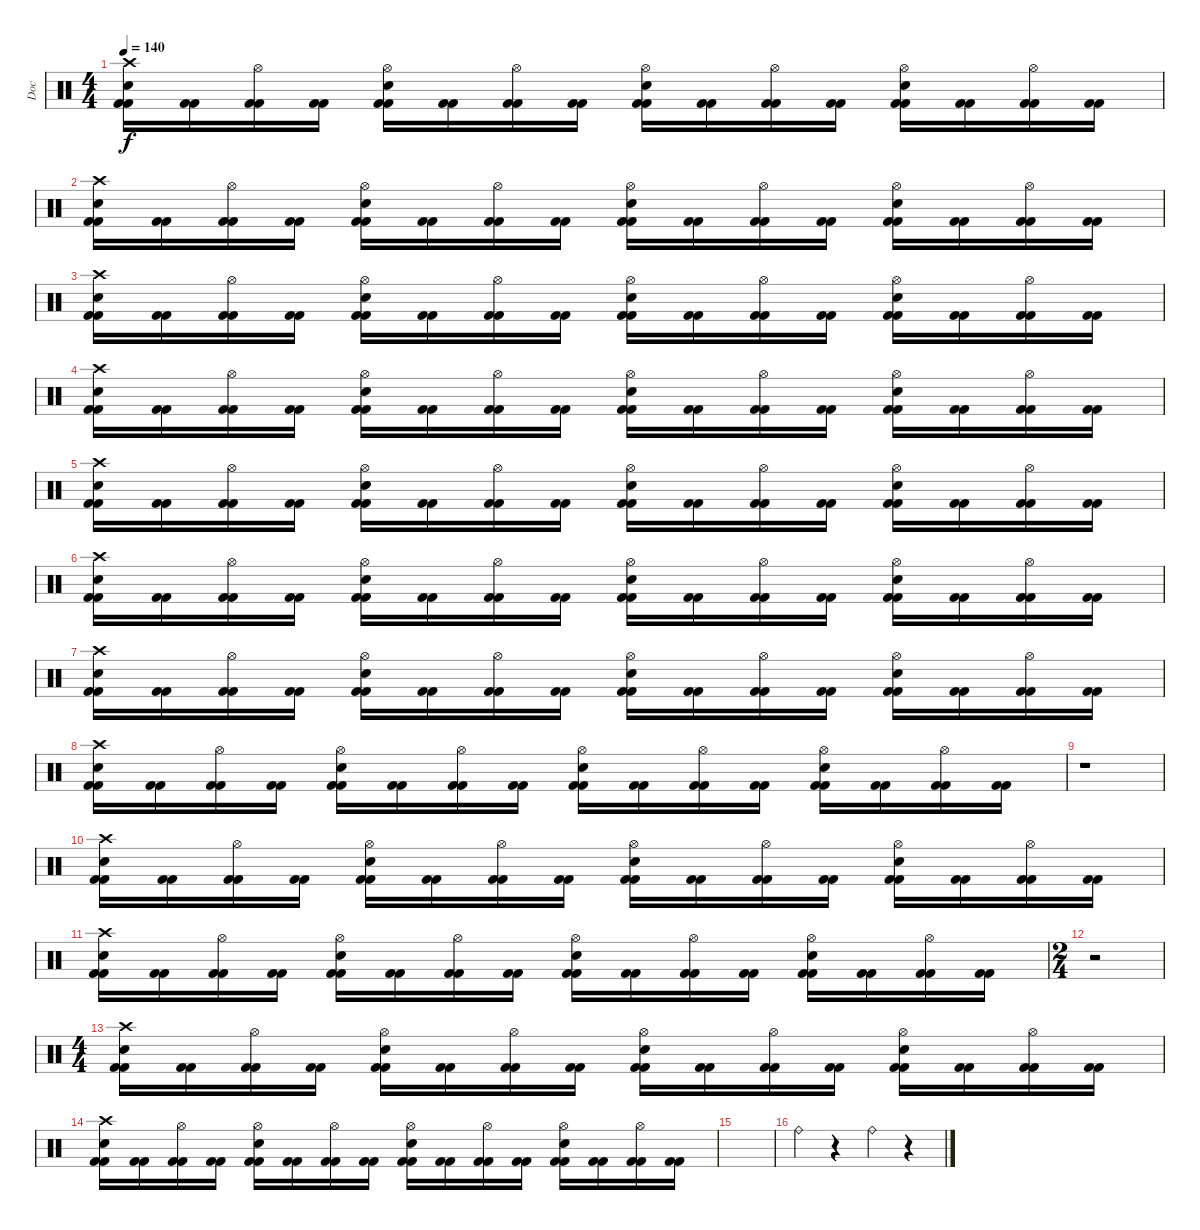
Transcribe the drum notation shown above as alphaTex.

\track ("Doc" "Doc") {instrument percussion}
\staff {score}
\articulation defaults
\ts (4 4)
\tempo 140
\clef neutral
\ks c
("Kick (hit) 2" "Crash high (hit)" "Electric Snare (hit)" "Kick (hit) 2").16{dy f} ("Kick (hit) 2" "Kick (hit) 2").16 ("Kick (hit) 2" "Hi-Hat (open)" "Kick (hit) 2").16 ("Kick (hit) 2" "Kick (hit) 2").16 ("Kick (hit) 2" "Hi-Hat (open)" "Electric Snare (hit)" "Kick (hit) 2").16 ("Kick (hit) 2" "Kick (hit) 2").16 ("Kick (hit) 2" "Hi-Hat (open)" "Kick (hit) 2").16 ("Kick (hit) 2" "Kick (hit) 2").16 ("Kick (hit) 2" "Hi-Hat (open)" "Electric Snare (hit)" "Kick (hit) 2").16 ("Kick (hit) 2" "Kick (hit) 2").16 ("Kick (hit) 2" "Hi-Hat (open)" "Kick (hit) 2").16 ("Kick (hit) 2" "Kick (hit) 2").16 ("Kick (hit) 2" "Hi-Hat (open)" "Electric Snare (hit)" "Kick (hit) 2").16 ("Kick (hit) 2" "Kick (hit) 2").16 ("Kick (hit) 2" "Hi-Hat (open)" "Kick (hit) 2").16 ("Kick (hit) 2" "Kick (hit) 2").16 |
("Kick (hit) 2" "Crash high (hit)" "Electric Snare (hit)" "Kick (hit) 2").16 ("Kick (hit) 2" "Kick (hit) 2").16 ("Kick (hit) 2" "Hi-Hat (open)" "Kick (hit) 2").16 ("Kick (hit) 2" "Kick (hit) 2").16 ("Kick (hit) 2" "Hi-Hat (open)" "Electric Snare (hit)" "Kick (hit) 2").16 ("Kick (hit) 2" "Kick (hit) 2").16 ("Kick (hit) 2" "Hi-Hat (open)" "Kick (hit) 2").16 ("Kick (hit) 2" "Kick (hit) 2").16 ("Kick (hit) 2" "Hi-Hat (open)" "Electric Snare (hit)" "Kick (hit) 2").16 ("Kick (hit) 2" "Kick (hit) 2").16 ("Kick (hit) 2" "Hi-Hat (open)" "Kick (hit) 2").16 ("Kick (hit) 2" "Kick (hit) 2").16 ("Kick (hit) 2" "Hi-Hat (open)" "Electric Snare (hit)" "Kick (hit) 2").16 ("Kick (hit) 2" "Kick (hit) 2").16 ("Kick (hit) 2" "Hi-Hat (open)" "Kick (hit) 2").16 ("Kick (hit) 2" "Kick (hit) 2").16 |
("Kick (hit) 2" "Crash high (hit)" "Electric Snare (hit)" "Kick (hit) 2").16 ("Kick (hit) 2" "Kick (hit) 2").16 ("Kick (hit) 2" "Hi-Hat (open)" "Kick (hit) 2").16 ("Kick (hit) 2" "Kick (hit) 2").16 ("Kick (hit) 2" "Hi-Hat (open)" "Electric Snare (hit)" "Kick (hit) 2").16 ("Kick (hit) 2" "Kick (hit) 2").16 ("Kick (hit) 2" "Hi-Hat (open)" "Kick (hit) 2").16 ("Kick (hit) 2" "Kick (hit) 2").16 ("Kick (hit) 2" "Hi-Hat (open)" "Electric Snare (hit)" "Kick (hit) 2").16 ("Kick (hit) 2" "Kick (hit) 2").16 ("Kick (hit) 2" "Hi-Hat (open)" "Kick (hit) 2").16 ("Kick (hit) 2" "Kick (hit) 2").16 ("Kick (hit) 2" "Hi-Hat (open)" "Electric Snare (hit)" "Kick (hit) 2").16 ("Kick (hit) 2" "Kick (hit) 2").16 ("Kick (hit) 2" "Hi-Hat (open)" "Kick (hit) 2").16 ("Kick (hit) 2" "Kick (hit) 2").16 |
("Kick (hit) 2" "Crash high (hit)" "Electric Snare (hit)" "Kick (hit) 2").16 ("Kick (hit) 2" "Kick (hit) 2").16 ("Kick (hit) 2" "Hi-Hat (open)" "Kick (hit) 2").16 ("Kick (hit) 2" "Kick (hit) 2").16 ("Kick (hit) 2" "Hi-Hat (open)" "Electric Snare (hit)" "Kick (hit) 2").16 ("Kick (hit) 2" "Kick (hit) 2").16 ("Kick (hit) 2" "Hi-Hat (open)" "Kick (hit) 2").16 ("Kick (hit) 2" "Kick (hit) 2").16 ("Kick (hit) 2" "Hi-Hat (open)" "Electric Snare (hit)" "Kick (hit) 2").16 ("Kick (hit) 2" "Kick (hit) 2").16 ("Kick (hit) 2" "Hi-Hat (open)" "Kick (hit) 2").16 ("Kick (hit) 2" "Kick (hit) 2").16 ("Kick (hit) 2" "Hi-Hat (open)" "Electric Snare (hit)" "Kick (hit) 2").16 ("Kick (hit) 2" "Kick (hit) 2").16 ("Kick (hit) 2" "Hi-Hat (open)" "Kick (hit) 2").16 ("Kick (hit) 2" "Kick (hit) 2").16 |
("Kick (hit) 2" "Crash high (hit)" "Electric Snare (hit)" "Kick (hit) 2").16 ("Kick (hit) 2" "Kick (hit) 2").16 ("Kick (hit) 2" "Hi-Hat (open)" "Kick (hit) 2").16 ("Kick (hit) 2" "Kick (hit) 2").16 ("Kick (hit) 2" "Hi-Hat (open)" "Electric Snare (hit)" "Kick (hit) 2").16 ("Kick (hit) 2" "Kick (hit) 2").16 ("Kick (hit) 2" "Hi-Hat (open)" "Kick (hit) 2").16 ("Kick (hit) 2" "Kick (hit) 2").16 ("Kick (hit) 2" "Hi-Hat (open)" "Electric Snare (hit)" "Kick (hit) 2").16 ("Kick (hit) 2" "Kick (hit) 2").16 ("Kick (hit) 2" "Hi-Hat (open)" "Kick (hit) 2").16 ("Kick (hit) 2" "Kick (hit) 2").16 ("Kick (hit) 2" "Hi-Hat (open)" "Electric Snare (hit)" "Kick (hit) 2").16 ("Kick (hit) 2" "Kick (hit) 2").16 ("Kick (hit) 2" "Hi-Hat (open)" "Kick (hit) 2").16 ("Kick (hit) 2" "Kick (hit) 2").16 |
("Kick (hit) 2" "Crash high (hit)" "Electric Snare (hit)" "Kick (hit) 2").16 ("Kick (hit) 2" "Kick (hit) 2").16 ("Kick (hit) 2" "Hi-Hat (open)" "Kick (hit) 2").16 ("Kick (hit) 2" "Kick (hit) 2").16 ("Kick (hit) 2" "Hi-Hat (open)" "Electric Snare (hit)" "Kick (hit) 2").16 ("Kick (hit) 2" "Kick (hit) 2").16 ("Kick (hit) 2" "Hi-Hat (open)" "Kick (hit) 2").16 ("Kick (hit) 2" "Kick (hit) 2").16 ("Kick (hit) 2" "Hi-Hat (open)" "Electric Snare (hit)" "Kick (hit) 2").16 ("Kick (hit) 2" "Kick (hit) 2").16 ("Kick (hit) 2" "Hi-Hat (open)" "Kick (hit) 2").16 ("Kick (hit) 2" "Kick (hit) 2").16 ("Kick (hit) 2" "Hi-Hat (open)" "Electric Snare (hit)" "Kick (hit) 2").16 ("Kick (hit) 2" "Kick (hit) 2").16 ("Kick (hit) 2" "Hi-Hat (open)" "Kick (hit) 2").16 ("Kick (hit) 2" "Kick (hit) 2").16 |
("Kick (hit) 2" "Crash high (hit)" "Electric Snare (hit)" "Kick (hit) 2").16 ("Kick (hit) 2" "Kick (hit) 2").16 ("Kick (hit) 2" "Hi-Hat (open)" "Kick (hit) 2").16 ("Kick (hit) 2" "Kick (hit) 2").16 ("Kick (hit) 2" "Hi-Hat (open)" "Electric Snare (hit)" "Kick (hit) 2").16 ("Kick (hit) 2" "Kick (hit) 2").16 ("Kick (hit) 2" "Hi-Hat (open)" "Kick (hit) 2").16 ("Kick (hit) 2" "Kick (hit) 2").16 ("Kick (hit) 2" "Hi-Hat (open)" "Electric Snare (hit)" "Kick (hit) 2").16 ("Kick (hit) 2" "Kick (hit) 2").16 ("Kick (hit) 2" "Hi-Hat (open)" "Kick (hit) 2").16 ("Kick (hit) 2" "Kick (hit) 2").16 ("Kick (hit) 2" "Hi-Hat (open)" "Electric Snare (hit)" "Kick (hit) 2").16 ("Kick (hit) 2" "Kick (hit) 2").16 ("Kick (hit) 2" "Hi-Hat (open)" "Kick (hit) 2").16 ("Kick (hit) 2" "Kick (hit) 2").16 |
("Kick (hit) 2" "Crash high (hit)" "Electric Snare (hit)" "Kick (hit) 2").16 ("Kick (hit) 2" "Kick (hit) 2").16 ("Kick (hit) 2" "Hi-Hat (open)" "Kick (hit) 2").16 ("Kick (hit) 2" "Kick (hit) 2").16 ("Kick (hit) 2" "Hi-Hat (open)" "Electric Snare (hit)" "Kick (hit) 2").16 ("Kick (hit) 2" "Kick (hit) 2").16 ("Kick (hit) 2" "Hi-Hat (open)" "Kick (hit) 2").16 ("Kick (hit) 2" "Kick (hit) 2").16 ("Kick (hit) 2" "Hi-Hat (open)" "Electric Snare (hit)" "Kick (hit) 2").16 ("Kick (hit) 2" "Kick (hit) 2").16 ("Kick (hit) 2" "Hi-Hat (open)" "Kick (hit) 2").16 ("Kick (hit) 2" "Kick (hit) 2").16 ("Kick (hit) 2" "Hi-Hat (open)" "Electric Snare (hit)" "Kick (hit) 2").16 ("Kick (hit) 2" "Kick (hit) 2").16 ("Kick (hit) 2" "Hi-Hat (open)" "Kick (hit) 2").16 ("Kick (hit) 2" "Kick (hit) 2").16 |
r.1 |
("Kick (hit) 2" "Crash high (hit)" "Electric Snare (hit)" "Kick (hit) 2").16 ("Kick (hit) 2" "Kick (hit) 2").16 ("Kick (hit) 2" "Hi-Hat (open)" "Kick (hit) 2").16 ("Kick (hit) 2" "Kick (hit) 2").16 ("Kick (hit) 2" "Hi-Hat (open)" "Electric Snare (hit)" "Kick (hit) 2").16 ("Kick (hit) 2" "Kick (hit) 2").16 ("Kick (hit) 2" "Hi-Hat (open)" "Kick (hit) 2").16 ("Kick (hit) 2" "Kick (hit) 2").16 ("Kick (hit) 2" "Hi-Hat (open)" "Electric Snare (hit)" "Kick (hit) 2").16 ("Kick (hit) 2" "Kick (hit) 2").16 ("Kick (hit) 2" "Hi-Hat (open)" "Kick (hit) 2").16 ("Kick (hit) 2" "Kick (hit) 2").16 ("Kick (hit) 2" "Hi-Hat (open)" "Electric Snare (hit)" "Kick (hit) 2").16 ("Kick (hit) 2" "Kick (hit) 2").16 ("Kick (hit) 2" "Hi-Hat (open)" "Kick (hit) 2").16 ("Kick (hit) 2" "Kick (hit) 2").16 |
("Kick (hit) 2" "Crash high (hit)" "Electric Snare (hit)" "Kick (hit) 2").16 ("Kick (hit) 2" "Kick (hit) 2").16 ("Kick (hit) 2" "Hi-Hat (open)" "Kick (hit) 2").16 ("Kick (hit) 2" "Kick (hit) 2").16 ("Kick (hit) 2" "Hi-Hat (open)" "Electric Snare (hit)" "Kick (hit) 2").16 ("Kick (hit) 2" "Kick (hit) 2").16 ("Kick (hit) 2" "Hi-Hat (open)" "Kick (hit) 2").16 ("Kick (hit) 2" "Kick (hit) 2").16 ("Kick (hit) 2" "Hi-Hat (open)" "Electric Snare (hit)" "Kick (hit) 2").16 ("Kick (hit) 2" "Kick (hit) 2").16 ("Kick (hit) 2" "Hi-Hat (open)" "Kick (hit) 2").16 ("Kick (hit) 2" "Kick (hit) 2").16 ("Kick (hit) 2" "Hi-Hat (open)" "Electric Snare (hit)" "Kick (hit) 2").16 ("Kick (hit) 2" "Kick (hit) 2").16 ("Kick (hit) 2" "Hi-Hat (open)" "Kick (hit) 2").16 ("Kick (hit) 2" "Kick (hit) 2").16 |
\ts (2 4)
r.2 |
\ts (4 4)
("Kick (hit) 2" "Crash high (hit)" "Electric Snare (hit)" "Kick (hit) 2").16 ("Kick (hit) 2" "Kick (hit) 2").16 ("Kick (hit) 2" "Hi-Hat (open)" "Kick (hit) 2").16 ("Kick (hit) 2" "Kick (hit) 2").16 ("Kick (hit) 2" "Hi-Hat (open)" "Electric Snare (hit)" "Kick (hit) 2").16 ("Kick (hit) 2" "Kick (hit) 2").16 ("Kick (hit) 2" "Hi-Hat (open)" "Kick (hit) 2").16 ("Kick (hit) 2" "Kick (hit) 2").16 ("Kick (hit) 2" "Hi-Hat (open)" "Electric Snare (hit)" "Kick (hit) 2").16 ("Kick (hit) 2" "Kick (hit) 2").16 ("Kick (hit) 2" "Hi-Hat (open)" "Kick (hit) 2").16 ("Kick (hit) 2" "Kick (hit) 2").16 ("Kick (hit) 2" "Hi-Hat (open)" "Electric Snare (hit)" "Kick (hit) 2").16 ("Kick (hit) 2" "Kick (hit) 2").16 ("Kick (hit) 2" "Hi-Hat (open)" "Kick (hit) 2").16 ("Kick (hit) 2" "Kick (hit) 2").16 |
("Kick (hit) 2" "Crash high (hit)" "Electric Snare (hit)" "Kick (hit) 2").16 ("Kick (hit) 2" "Kick (hit) 2").16 ("Kick (hit) 2" "Hi-Hat (open)" "Kick (hit) 2").16 ("Kick (hit) 2" "Kick (hit) 2").16 ("Kick (hit) 2" "Hi-Hat (open)" "Electric Snare (hit)" "Kick (hit) 2").16 ("Kick (hit) 2" "Kick (hit) 2").16 ("Kick (hit) 2" "Hi-Hat (open)" "Kick (hit) 2").16 ("Kick (hit) 2" "Kick (hit) 2").16 ("Kick (hit) 2" "Hi-Hat (open)" "Electric Snare (hit)" "Kick (hit) 2").16 ("Kick (hit) 2" "Kick (hit) 2").16 ("Kick (hit) 2" "Hi-Hat (open)" "Kick (hit) 2").16 ("Kick (hit) 2" "Kick (hit) 2").16 ("Kick (hit) 2" "Hi-Hat (open)" "Electric Snare (hit)" "Kick (hit) 2").16 ("Kick (hit) 2" "Kick (hit) 2").16 ("Kick (hit) 2" "Hi-Hat (open)" "Kick (hit) 2").16 ("Kick (hit) 2" "Kick (hit) 2").16 |
|
"Ride (bell)".4 r.4 "Ride (bell)".4 r.4
